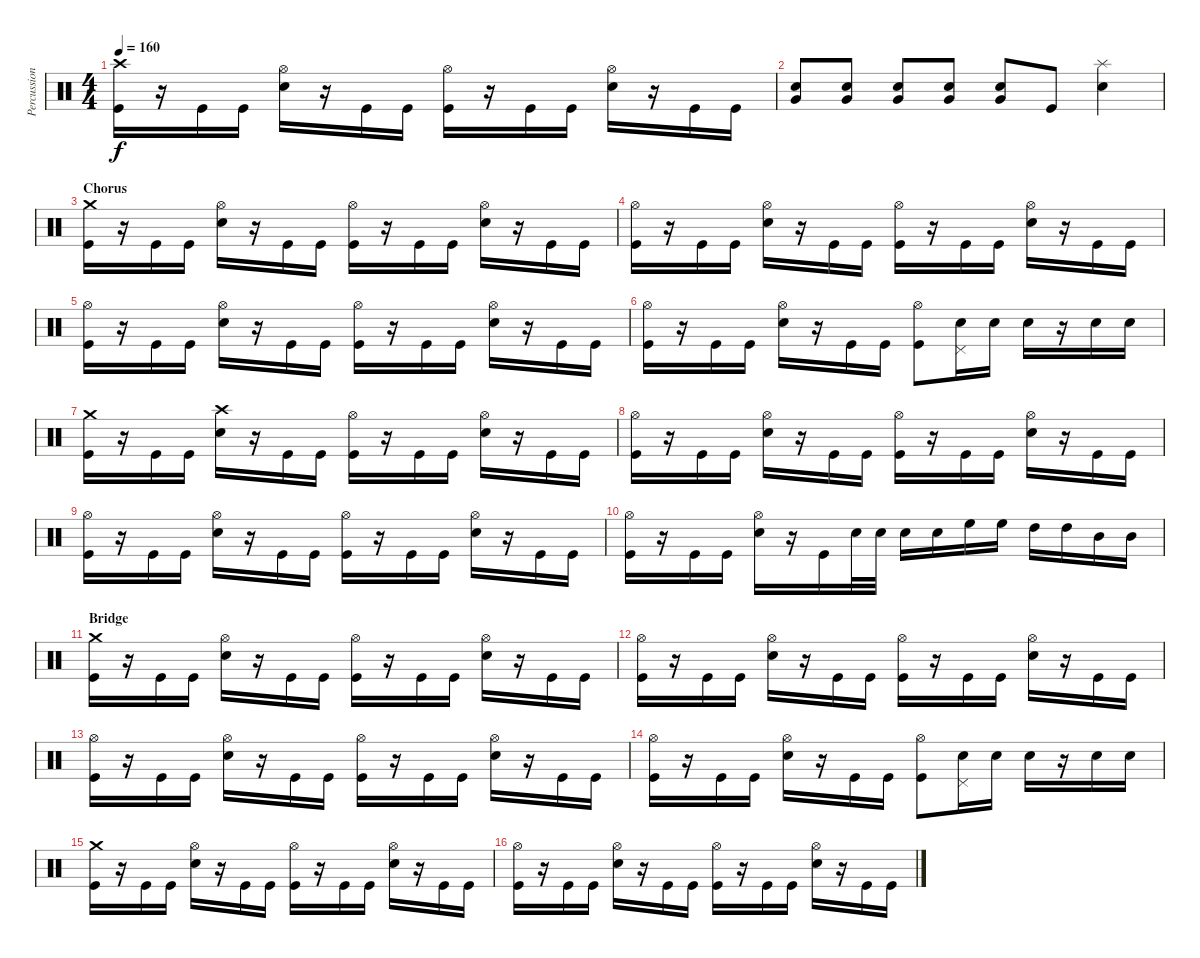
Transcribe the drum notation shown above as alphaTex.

\track ("Percussion" "Percussion") {instrument percussion}
\staff {score}
\articulation defaults
\ts (4 4)
\tempo 160
\clef neutral
\ks c
("Crash high (hit)" "Kick (hit)").16{dy f} r.16 "Kick (hit)".16 "Kick (hit)".16 ("Hi-Hat (open)" "Electric Snare (hit)").16 r.16 "Kick (hit)".16 "Kick (hit)".16 ("Hi-Hat (open)" "Kick (hit)").16 r.16 "Kick (hit)".16 "Kick (hit)".16 ("Hi-Hat (open)" "Electric Snare (hit)").16 r.16 "Kick (hit)".16 "Kick (hit)".16 |
("Very Low Tom (hit)" "Electric Snare (hit)").8 ("Very Low Tom (hit)" "Electric Snare (hit)").8 ("Very Low Tom (hit)" "Electric Snare (hit)").8 ("Very Low Tom (hit)" "Electric Snare (hit)").8 ("Very Low Tom (hit)" "Electric Snare (hit)").8 "Kick (hit)".8 ("Splash (hit)" "Electric Snare (hit)").4 |
\section ("" "Chorus")
("Crash medium (hit)" "Kick (hit)").16 r.16 "Kick (hit)".16 "Kick (hit)".16 ("Hi-Hat (open)" "Electric Snare (hit)").16 r.16 "Kick (hit)".16 "Kick (hit)".16 ("Hi-Hat (open)" "Kick (hit)").16 r.16 "Kick (hit)".16 "Kick (hit)".16 ("Hi-Hat (open)" "Electric Snare (hit)").16 r.16 "Kick (hit)".16 "Kick (hit)".16 |
("Hi-Hat (open)" "Kick (hit)").16 r.16 "Kick (hit)".16 "Kick (hit)".16 ("Hi-Hat (open)" "Electric Snare (hit)").16 r.16 "Kick (hit)".16 "Kick (hit)".16 ("Hi-Hat (open)" "Kick (hit)").16 r.16 "Kick (hit)".16 "Kick (hit)".16 ("Hi-Hat (open)" "Electric Snare (hit)").16 r.16 "Kick (hit)".16 "Kick (hit)".16 |
("Hi-Hat (open)" "Kick (hit)").16 r.16 "Kick (hit)".16 "Kick (hit)".16 ("Hi-Hat (open)" "Electric Snare (hit)").16 r.16 "Kick (hit)".16 "Kick (hit)".16 ("Hi-Hat (open)" "Kick (hit)").16 r.16 "Kick (hit)".16 "Kick (hit)".16 ("Hi-Hat (open)" "Electric Snare (hit)").16 r.16 "Kick (hit)".16 "Kick (hit)".16 |
("Hi-Hat (open)" "Kick (hit)").16 r.16 "Kick (hit)".16 "Kick (hit)".16 ("Hi-Hat (open)" "Electric Snare (hit)").16 r.16 "Kick (hit)".16 "Kick (hit)".16 ("Hi-Hat (open)" "Kick (hit)").8 ("Pedal Hi-Hat (hit)" "Electric Snare (hit)").16 "Electric Snare (hit)".16 "Electric Snare (hit)".16 r.16 "Electric Snare (hit)".16 "Electric Snare (hit)".16 |
("Crash medium (hit)" "Kick (hit)").16 r.16 "Kick (hit)".16 "Kick (hit)".16 ("Crash high (hit)" "Electric Snare (hit)").16 r.16 "Kick (hit)".16 "Kick (hit)".16 ("Hi-Hat (open)" "Kick (hit)").16 r.16 "Kick (hit)".16 "Kick (hit)".16 ("Hi-Hat (open)" "Electric Snare (hit)").16 r.16 "Kick (hit)".16 "Kick (hit)".16 |
("Hi-Hat (open)" "Kick (hit)").16 r.16 "Kick (hit)".16 "Kick (hit)".16 ("Hi-Hat (open)" "Electric Snare (hit)").16 r.16 "Kick (hit)".16 "Kick (hit)".16 ("Hi-Hat (open)" "Kick (hit)").16 r.16 "Kick (hit)".16 "Kick (hit)".16 ("Hi-Hat (open)" "Electric Snare (hit)").16 r.16 "Kick (hit)".16 "Kick (hit)".16 |
("Hi-Hat (open)" "Kick (hit)").16 r.16 "Kick (hit)".16 "Kick (hit)".16 ("Hi-Hat (open)" "Electric Snare (hit)").16 r.16 "Kick (hit)".16 "Kick (hit)".16 ("Hi-Hat (open)" "Kick (hit)").16 r.16 "Kick (hit)".16 "Kick (hit)".16 ("Hi-Hat (open)" "Electric Snare (hit)").16 r.16 "Kick (hit)".16 "Kick (hit)".16 |
("Hi-Hat (open)" "Kick (hit)").16 r.16 "Kick (hit)".16 "Kick (hit)".16 ("Hi-Hat (open)" "Electric Snare (hit)").16 r.16 "Kick (hit)".16 "Electric Snare (hit)".32 "Electric Snare (hit)".32 "Electric Snare (hit)".16 "Electric Snare (hit)".16 "High Floor Tom (hit)".16 "High Floor Tom (hit)".16 "High Tom (hit)".16 "High Tom (hit)".16 "Mid Tom (hit)".16 "Mid Tom (hit)".16 |
\section ("" "Bridge")
("Crash medium (hit)" "Kick (hit)").16 r.16 "Kick (hit)".16 "Kick (hit)".16 ("Hi-Hat (open)" "Electric Snare (hit)").16 r.16 "Kick (hit)".16 "Kick (hit)".16 ("Hi-Hat (open)" "Kick (hit)").16 r.16 "Kick (hit)".16 "Kick (hit)".16 ("Hi-Hat (open)" "Electric Snare (hit)").16 r.16 "Kick (hit)".16 "Kick (hit)".16 |
("Hi-Hat (open)" "Kick (hit)").16 r.16 "Kick (hit)".16 "Kick (hit)".16 ("Hi-Hat (open)" "Electric Snare (hit)").16 r.16 "Kick (hit)".16 "Kick (hit)".16 ("Hi-Hat (open)" "Kick (hit)").16 r.16 "Kick (hit)".16 "Kick (hit)".16 ("Hi-Hat (open)" "Electric Snare (hit)").16 r.16 "Kick (hit)".16 "Kick (hit)".16 |
("Hi-Hat (open)" "Kick (hit)").16 r.16 "Kick (hit)".16 "Kick (hit)".16 ("Hi-Hat (open)" "Electric Snare (hit)").16 r.16 "Kick (hit)".16 "Kick (hit)".16 ("Hi-Hat (open)" "Kick (hit)").16 r.16 "Kick (hit)".16 "Kick (hit)".16 ("Hi-Hat (open)" "Electric Snare (hit)").16 r.16 "Kick (hit)".16 "Kick (hit)".16 |
("Hi-Hat (open)" "Kick (hit)").16 r.16 "Kick (hit)".16 "Kick (hit)".16 ("Hi-Hat (open)" "Electric Snare (hit)").16 r.16 "Kick (hit)".16 "Kick (hit)".16 ("Hi-Hat (open)" "Kick (hit)").8 ("Pedal Hi-Hat (hit)" "Electric Snare (hit)").16 "Electric Snare (hit)".16 "Electric Snare (hit)".16 r.16 "Electric Snare (hit)".16 "Electric Snare (hit)".16 |
("Crash medium (hit)" "Kick (hit)").16 r.16 "Kick (hit)".16 "Kick (hit)".16 ("Hi-Hat (open)" "Electric Snare (hit)").16 r.16 "Kick (hit)".16 "Kick (hit)".16 ("Hi-Hat (open)" "Kick (hit)").16 r.16 "Kick (hit)".16 "Kick (hit)".16 ("Hi-Hat (open)" "Electric Snare (hit)").16 r.16 "Kick (hit)".16 "Kick (hit)".16 |
("Hi-Hat (open)" "Kick (hit)").16 r.16 "Kick (hit)".16 "Kick (hit)".16 ("Hi-Hat (open)" "Electric Snare (hit)").16 r.16 "Kick (hit)".16 "Kick (hit)".16 ("Hi-Hat (open)" "Kick (hit)").16 r.16 "Kick (hit)".16 "Kick (hit)".16 ("Hi-Hat (open)" "Electric Snare (hit)").16 r.16 "Kick (hit)".16 "Kick (hit)".16
